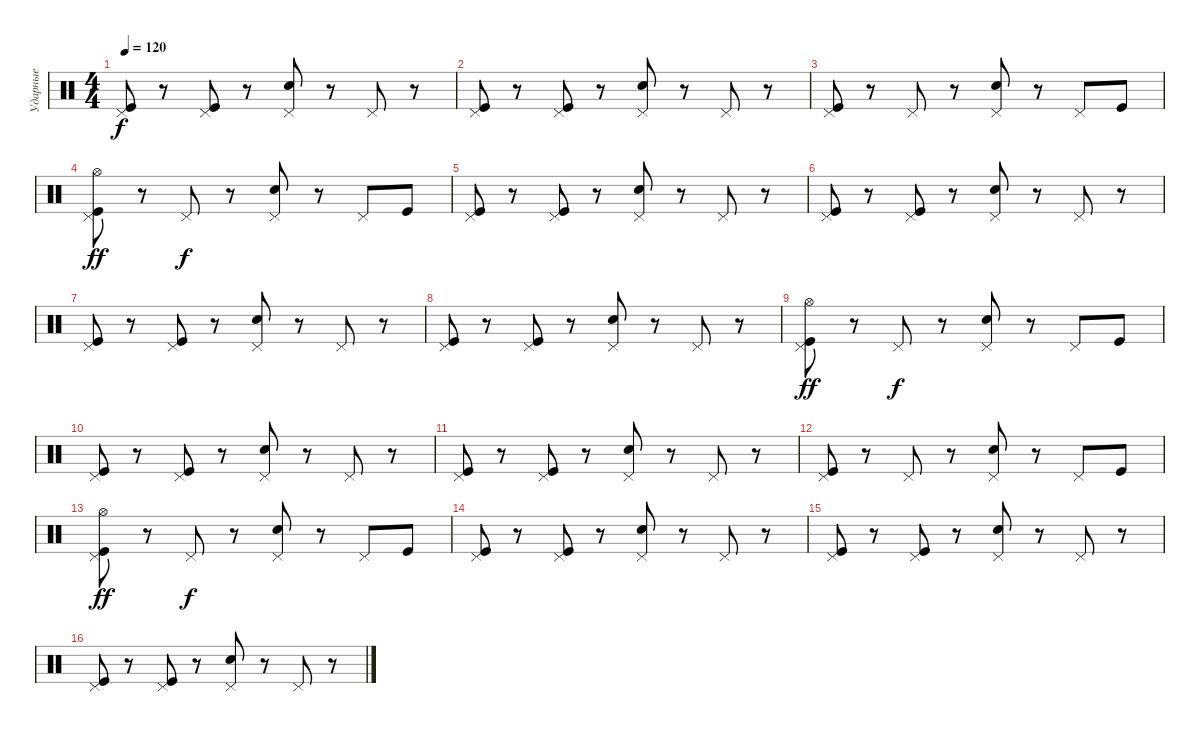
\track ("Ударные" "Ударные") {instrument percussion}
\staff {score}
\articulation defaults
\ts (4 4)
\tempo 120
\clef neutral
\ks c
("Pedal Hi-Hat (hit)" "Kick (hit)").8{dy f} r.8 ("Kick (hit)" "Pedal Hi-Hat (hit)").8 r.8 ("Snare (hit) 2" "Pedal Hi-Hat (hit)").8 r.8 "Pedal Hi-Hat (hit)".8 r.8 |
("Pedal Hi-Hat (hit)" "Kick (hit)").8 r.8 ("Kick (hit)" "Pedal Hi-Hat (hit)").8 r.8 ("Snare (hit) 2" "Pedal Hi-Hat (hit)").8 r.8 "Pedal Hi-Hat (hit)".8 r.8 |
("Kick (hit)" "Pedal Hi-Hat (hit)").8 r.8 "Pedal Hi-Hat (hit)".8 r.8 ("Snare (hit) 2" "Pedal Hi-Hat (hit)").8 r.8 "Pedal Hi-Hat (hit)".8 "Kick (hit)".8 |
("Kick (hit)" "Pedal Hi-Hat (hit)" "Hi-Hat (open)").8{dy ff} r.8 "Pedal Hi-Hat (hit)".8{dy f} r.8 ("Snare (hit) 2" "Pedal Hi-Hat (hit)").8 r.8 "Pedal Hi-Hat (hit)".8 "Kick (hit)".8 |
("Pedal Hi-Hat (hit)" "Kick (hit)").8 r.8 ("Kick (hit)" "Pedal Hi-Hat (hit)").8 r.8 ("Snare (hit) 2" "Pedal Hi-Hat (hit)").8 r.8 "Pedal Hi-Hat (hit)".8 r.8 |
("Pedal Hi-Hat (hit)" "Kick (hit)").8 r.8 ("Kick (hit)" "Pedal Hi-Hat (hit)").8 r.8 ("Snare (hit) 2" "Pedal Hi-Hat (hit)").8 r.8 "Pedal Hi-Hat (hit)".8 r.8 |
("Pedal Hi-Hat (hit)" "Kick (hit)").8 r.8 ("Kick (hit)" "Pedal Hi-Hat (hit)").8 r.8 ("Snare (hit) 2" "Pedal Hi-Hat (hit)").8 r.8 "Pedal Hi-Hat (hit)".8 r.8 |
("Pedal Hi-Hat (hit)" "Kick (hit)").8 r.8 ("Kick (hit)" "Pedal Hi-Hat (hit)").8 r.8 ("Snare (hit) 2" "Pedal Hi-Hat (hit)").8 r.8 "Pedal Hi-Hat (hit)".8 r.8 |
("Kick (hit)" "Pedal Hi-Hat (hit)" "Hi-Hat (open)").8{dy ff} r.8 "Pedal Hi-Hat (hit)".8{dy f} r.8 ("Snare (hit) 2" "Pedal Hi-Hat (hit)").8 r.8 "Pedal Hi-Hat (hit)".8 "Kick (hit)".8 |
("Pedal Hi-Hat (hit)" "Kick (hit)").8 r.8 ("Kick (hit)" "Pedal Hi-Hat (hit)").8 r.8 ("Snare (hit) 2" "Pedal Hi-Hat (hit)").8 r.8 "Pedal Hi-Hat (hit)".8 r.8 |
("Pedal Hi-Hat (hit)" "Kick (hit)").8 r.8 ("Kick (hit)" "Pedal Hi-Hat (hit)").8 r.8 ("Snare (hit) 2" "Pedal Hi-Hat (hit)").8 r.8 "Pedal Hi-Hat (hit)".8 r.8 |
("Kick (hit)" "Pedal Hi-Hat (hit)").8 r.8 "Pedal Hi-Hat (hit)".8 r.8 ("Snare (hit) 2" "Pedal Hi-Hat (hit)").8 r.8 "Pedal Hi-Hat (hit)".8 "Kick (hit)".8 |
("Kick (hit)" "Pedal Hi-Hat (hit)" "Hi-Hat (open)").8{dy ff} r.8 "Pedal Hi-Hat (hit)".8{dy f} r.8 ("Snare (hit) 2" "Pedal Hi-Hat (hit)").8 r.8 "Pedal Hi-Hat (hit)".8 "Kick (hit)".8 |
("Pedal Hi-Hat (hit)" "Kick (hit)").8 r.8 ("Kick (hit)" "Pedal Hi-Hat (hit)").8 r.8 ("Snare (hit) 2" "Pedal Hi-Hat (hit)").8 r.8 "Pedal Hi-Hat (hit)".8 r.8 |
("Pedal Hi-Hat (hit)" "Kick (hit)").8 r.8 ("Kick (hit)" "Pedal Hi-Hat (hit)").8 r.8 ("Snare (hit) 2" "Pedal Hi-Hat (hit)").8 r.8 "Pedal Hi-Hat (hit)".8 r.8 |
("Pedal Hi-Hat (hit)" "Kick (hit)").8 r.8 ("Kick (hit)" "Pedal Hi-Hat (hit)").8 r.8 ("Snare (hit) 2" "Pedal Hi-Hat (hit)").8 r.8 "Pedal Hi-Hat (hit)".8 r.8
